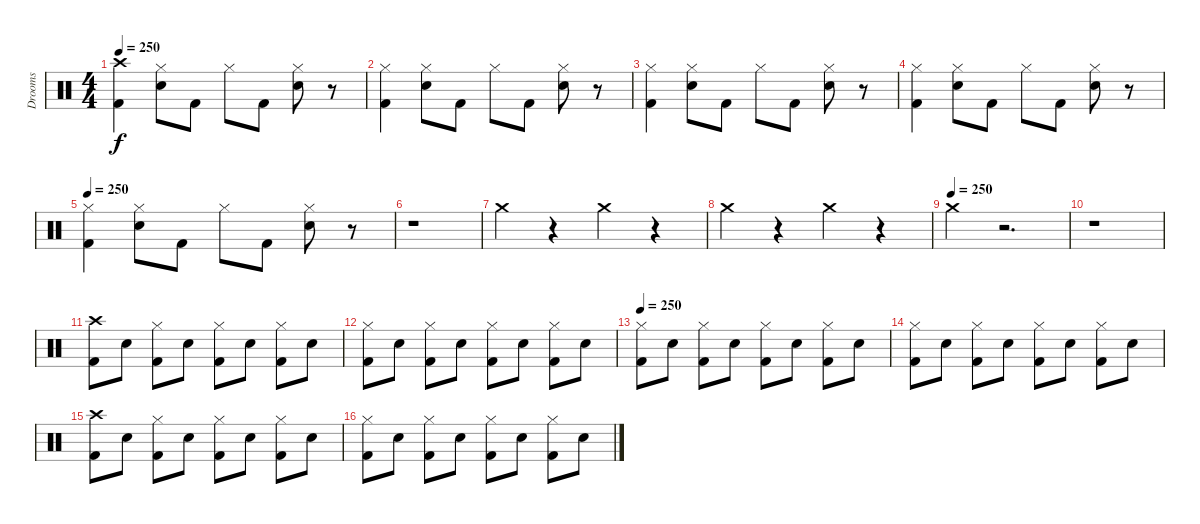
\track ("Drooms" "Drooms") {instrument percussion}
\staff {score}
\articulation defaults
\ts (4 4)
\tempo 250
\clef neutral
\ks c
("Crash high (hit)" "Kick (hit) 2").4{dy f} ("Hi-Hat (closed)" "Snare (hit) 2").8 "Kick (hit) 2".8 "Hi-Hat (closed)".8 "Kick (hit) 2".8 ("Hi-Hat (closed)" "Snare (hit) 2").8 r.8 |
("Hi-Hat (closed)" "Kick (hit) 2").4 ("Hi-Hat (closed)" "Snare (hit) 2").8 "Kick (hit) 2".8 "Hi-Hat (closed)".8 "Kick (hit) 2".8 ("Hi-Hat (closed)" "Snare (hit) 2").8 r.8 |
("Hi-Hat (closed)" "Kick (hit) 2").4 ("Hi-Hat (closed)" "Snare (hit) 2").8 "Kick (hit) 2".8 "Hi-Hat (closed)".8 "Kick (hit) 2".8 ("Hi-Hat (closed)" "Snare (hit) 2").8 r.8 |
("Hi-Hat (closed)" "Kick (hit) 2").4 ("Hi-Hat (closed)" "Snare (hit) 2").8 "Kick (hit) 2".8 "Hi-Hat (closed)".8 "Kick (hit) 2".8 ("Hi-Hat (closed)" "Snare (hit) 2").8 r.8 |
\tempo 250
("Hi-Hat (closed)" "Kick (hit) 2").4 ("Hi-Hat (closed)" "Snare (hit) 2").8 "Kick (hit) 2".8 "Hi-Hat (closed)".8 "Kick (hit) 2".8 ("Hi-Hat (closed)" "Snare (hit) 2").8 r.8 |
r.1 |
"Crash medium (hit)".4 r.4 "Crash medium (hit)".4 r.4 |
"Crash medium (hit)".4 r.4 "Crash medium (hit)".4 r.4 |
\tempo (250)
"Crash medium (hit)".4 r.2{d} |
r.1 |
("Crash high (hit)" "Kick (hit) 2").8 "Snare (hit) 2".8 ("Hi-Hat (closed)" "Kick (hit) 2").8 "Snare (hit) 2".8 ("Hi-Hat (closed)" "Kick (hit) 2").8 "Snare (hit) 2".8 ("Hi-Hat (closed)" "Kick (hit) 2").8 "Snare (hit) 2".8 |
("Hi-Hat (closed)" "Kick (hit) 2").8 "Snare (hit) 2".8 ("Hi-Hat (closed)" "Kick (hit) 2").8 "Snare (hit) 2".8 ("Hi-Hat (closed)" "Kick (hit) 2").8 "Snare (hit) 2".8 ("Hi-Hat (closed)" "Kick (hit) 2").8 "Snare (hit) 2".8 |
\tempo 250
("Hi-Hat (closed)" "Kick (hit) 2").8 "Snare (hit) 2".8 ("Hi-Hat (closed)" "Kick (hit) 2").8 "Snare (hit) 2".8 ("Hi-Hat (closed)" "Kick (hit) 2").8 "Snare (hit) 2".8 ("Hi-Hat (closed)" "Kick (hit) 2").8 "Snare (hit) 2".8 |
("Hi-Hat (closed)" "Kick (hit) 2").8 "Snare (hit) 2".8 ("Hi-Hat (closed)" "Kick (hit) 2").8 "Snare (hit) 2".8 ("Hi-Hat (closed)" "Kick (hit) 2").8 "Snare (hit) 2".8 ("Hi-Hat (closed)" "Kick (hit) 2").8 "Snare (hit) 2".8 |
("Crash high (hit)" "Kick (hit) 2").8 "Snare (hit) 2".8 ("Hi-Hat (closed)" "Kick (hit) 2").8 "Snare (hit) 2".8 ("Hi-Hat (closed)" "Kick (hit) 2").8 "Snare (hit) 2".8 ("Hi-Hat (closed)" "Kick (hit) 2").8 "Snare (hit) 2".8 |
("Hi-Hat (closed)" "Kick (hit) 2").8 "Snare (hit) 2".8 ("Hi-Hat (closed)" "Kick (hit) 2").8 "Snare (hit) 2".8 ("Hi-Hat (closed)" "Kick (hit) 2").8 "Snare (hit) 2".8 ("Hi-Hat (closed)" "Kick (hit) 2").8 "Snare (hit) 2".8
